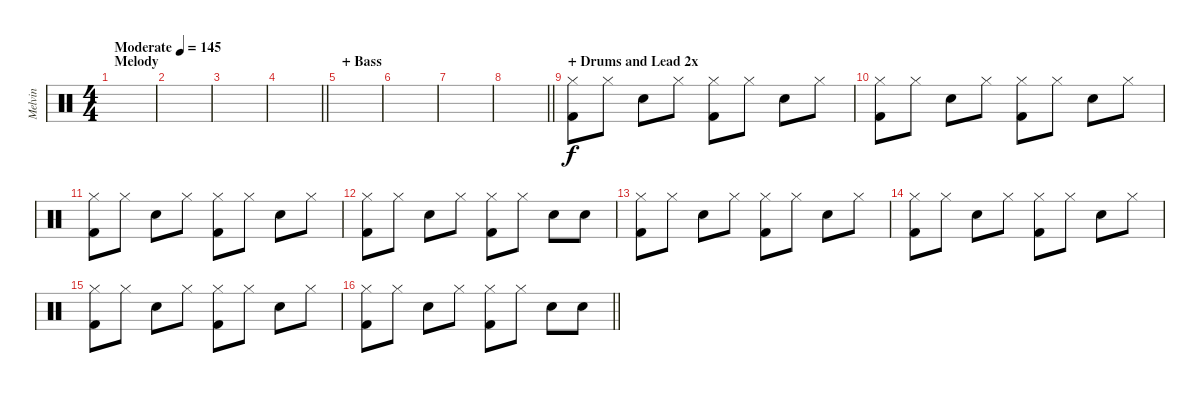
\track ("Melvin" "Melvin") {instrument percussion}
\staff {score}
\articulation defaults
\ts (4 4)
\section ("" "Melody")
\tempo (145 "Moderate")
\clef neutral
\ks c
|
|
|
\barLineRight lightlight
|
\section ("" "+ Bass")
|
|
|
\barLineRight lightlight
|
\section ("" "+ Drums and Lead 2x")
("Hi-Hat (closed)" "Kick (hit) 2").8 "Hi-Hat (closed)".8 "Snare (hit) 2".8 "Hi-Hat (closed)".8 ("Hi-Hat (closed)" "Kick (hit) 2").8 "Hi-Hat (closed)".8 "Snare (hit) 2".8 "Hi-Hat (closed)".8 |
("Hi-Hat (closed)" "Kick (hit) 2").8 "Hi-Hat (closed)".8 "Snare (hit) 2".8 "Hi-Hat (closed)".8 ("Hi-Hat (closed)" "Kick (hit) 2").8 "Hi-Hat (closed)".8 "Snare (hit) 2".8 "Hi-Hat (closed)".8 |
("Hi-Hat (closed)" "Kick (hit) 2").8 "Hi-Hat (closed)".8 "Snare (hit) 2".8 "Hi-Hat (closed)".8 ("Hi-Hat (closed)" "Kick (hit) 2").8 "Hi-Hat (closed)".8 "Snare (hit) 2".8 "Hi-Hat (closed)".8 |
("Hi-Hat (closed)" "Kick (hit) 2").8 "Hi-Hat (closed)".8 "Snare (hit) 2".8 "Hi-Hat (closed)".8 ("Hi-Hat (closed)" "Kick (hit) 2").8 "Hi-Hat (closed)".8 "Snare (hit) 2".8 "Snare (hit) 2".8 |
("Hi-Hat (closed)" "Kick (hit) 2").8 "Hi-Hat (closed)".8 "Snare (hit) 2".8 "Hi-Hat (closed)".8 ("Hi-Hat (closed)" "Kick (hit) 2").8 "Hi-Hat (closed)".8 "Snare (hit) 2".8 "Hi-Hat (closed)".8 |
("Hi-Hat (closed)" "Kick (hit) 2").8 "Hi-Hat (closed)".8 "Snare (hit) 2".8 "Hi-Hat (closed)".8 ("Hi-Hat (closed)" "Kick (hit) 2").8 "Hi-Hat (closed)".8 "Snare (hit) 2".8 "Hi-Hat (closed)".8 |
("Hi-Hat (closed)" "Kick (hit) 2").8 "Hi-Hat (closed)".8 "Snare (hit) 2".8 "Hi-Hat (closed)".8 ("Hi-Hat (closed)" "Kick (hit) 2").8 "Hi-Hat (closed)".8 "Snare (hit) 2".8 "Hi-Hat (closed)".8 |
\barLineRight lightlight
("Hi-Hat (closed)" "Kick (hit) 2").8 "Hi-Hat (closed)".8 "Snare (hit) 2".8 "Hi-Hat (closed)".8 ("Hi-Hat (closed)" "Kick (hit) 2").8 "Hi-Hat (closed)".8 "Snare (hit) 2".8 "Snare (hit) 2".8
